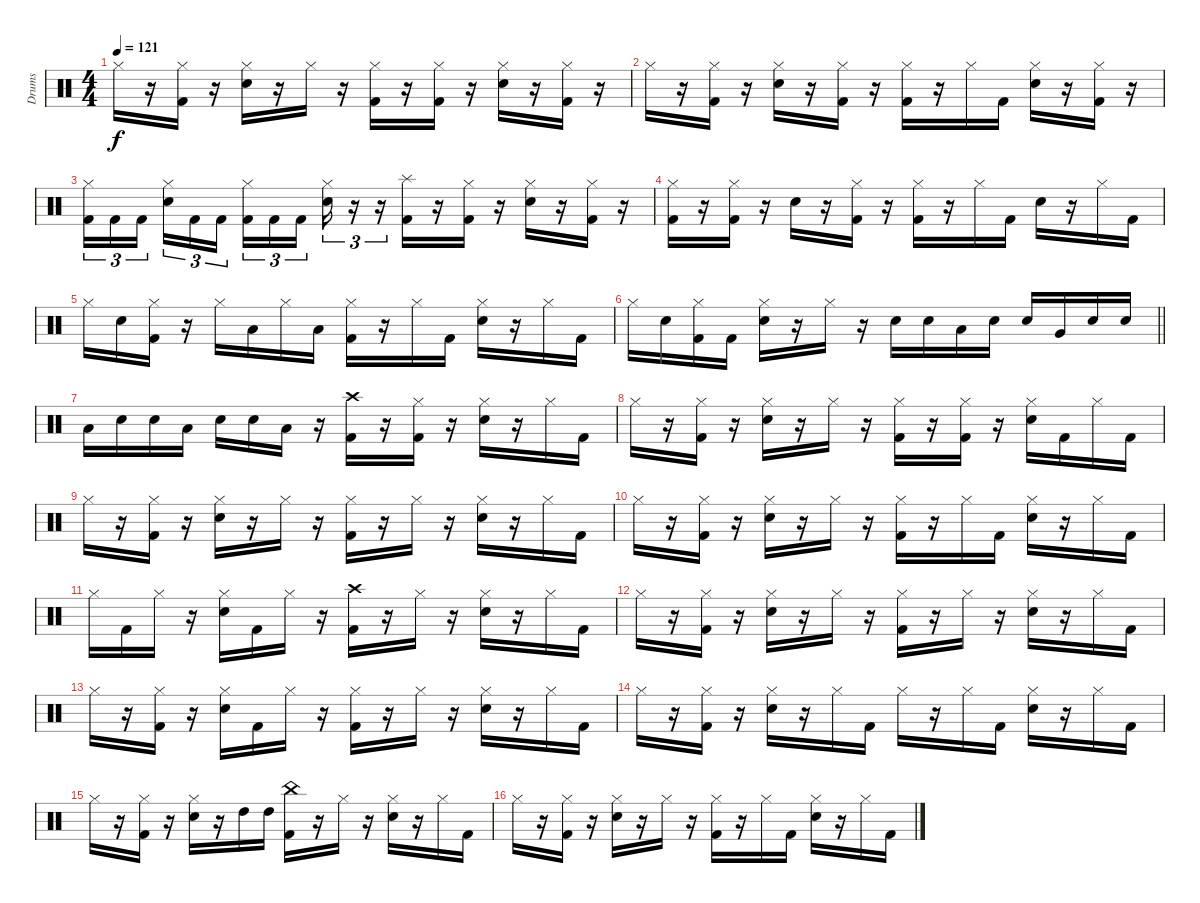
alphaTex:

\track ("Drums" "Drums") {instrument percussion}
\staff {score}
\articulation defaults
\ts (4 4)
\tempo 121
\clef neutral
\ks c "Hi-Hat (closed)".16{dy f}
r.16 ("Hi-Hat (closed)" "Kick (hit) 2").16 r.16 ("Hi-Hat (closed)" "Snare (hit) 2").16 r.16 "Hi-Hat (closed)".16 r.16 ("Hi-Hat (closed)" "Kick (hit) 2").16 r.16 ("Hi-Hat (closed)" "Kick (hit) 2").16 r.16 ("Hi-Hat (closed)" "Snare (hit) 2").16 r.16 ("Hi-Hat (closed)" "Kick (hit) 2").16 r.16 |
"Hi-Hat (closed)".16 r.16 ("Hi-Hat (closed)" "Kick (hit) 2").16 r.16 ("Hi-Hat (closed)" "Snare (hit) 2").16 r.16 ("Hi-Hat (closed)" "Kick (hit) 2").16 r.16 ("Hi-Hat (closed)" "Kick (hit) 2").16 r.16 "Hi-Hat (closed)".16 "Kick (hit) 2".16 ("Hi-Hat (closed)" "Snare (hit) 2").16 r.16 ("Hi-Hat (closed)" "Kick (hit) 2").16 r.16 |
("Hi-Hat (closed)" "Kick (hit) 2").16{tu (3 2)} "Kick (hit) 2".16{tu (3 2)} "Kick (hit) 2".16{tu (3 2) beam splitsecondary} ("Hi-Hat (closed)" "Snare (hit) 2").16{tu (3 2)} "Kick (hit) 2".16{tu (3 2)} "Kick (hit) 2".16{tu (3 2)} ("Hi-Hat (closed)" "Kick (hit) 2").16{tu (3 2)} "Kick (hit) 2".16{tu (3 2)} "Kick (hit) 2".16{tu (3 2) beam splitsecondary} ("Hi-Hat (closed)" "Snare (hit) 2").16{tu (3 2)} r.16{tu (3 2)} r.16{tu (3 2)} ("Splash (hit)" "Kick (hit) 2").16 r.16 ("Hi-Hat (closed)" "Kick (hit) 2").16 r.16 ("Hi-Hat (closed)" "Snare (hit) 2").16 r.16 ("Hi-Hat (closed)" "Kick (hit) 2").16 r.16 |
("Hi-Hat (closed)" "Kick (hit) 2").16 r.16 ("Hi-Hat (closed)" "Kick (hit) 2").16 r.16 "Snare (hit) 2".16 r.16 ("Hi-Hat (closed)" "Kick (hit) 2").16 r.16 ("Hi-Hat (closed)" "Kick (hit) 2").16 r.16 "Hi-Hat (closed)".16 "Kick (hit) 2".16 "Snare (hit) 2".16 r.16 "Hi-Hat (closed)".16 "Kick (hit) 2".16 |
"Hi-Hat (closed)".16 "Snare (hit) 2".16 ("Hi-Hat (closed)" "Kick (hit) 2").16 r.16 "Hi-Hat (closed)".16 "Low Tom (hit)".16 "Hi-Hat (closed)".16 "Low Tom (hit)".16 ("Hi-Hat (closed)" "Kick (hit) 2").16 r.16 "Hi-Hat (closed)".16 "Kick (hit) 2".16 ("Hi-Hat (closed)" "Snare (hit) 2").16 r.16 "Hi-Hat (closed)".16 "Kick (hit) 2".16 |
\barLineRight lightlight "Hi-Hat (closed)".16 "Snare (hit) 2".16
("Hi-Hat (closed)" "Kick (hit) 2").16 "Kick (hit) 2".16 ("Hi-Hat (closed)" "Snare (hit) 2").16 r.16 "Hi-Hat (closed)".16 r.16 "Snare (hit) 2".16 "Snare (hit) 2".16 "Low Tom (hit)".16 "Snare (hit) 2".16 "Snare (hit) 2".16 "Very Low Tom (hit)".16 "Snare (hit) 2".16 "Snare (hit) 2".16 |
\section ("" "")
"Low Floor Tom (hit)".16 "Snare (hit) 2".16 "Snare (hit) 2".16 "Low Floor Tom (hit)".16 "Snare (hit) 2".16 "Snare (hit) 2".16 "Low Tom (hit)".16 r.16 ("Crash high (hit)" "Kick (hit) 2").16 r.16 ("Hi-Hat (closed)" "Kick (hit) 2").16 r.16 ("Hi-Hat (closed)" "Snare (hit) 2").16 r.16 "Hi-Hat (closed)".16 "Kick (hit) 2".16 |
"Hi-Hat (closed)".16 r.16 ("Hi-Hat (closed)" "Kick (hit) 2").16 r.16 ("Hi-Hat (closed)" "Snare (hit) 2").16 r.16 "Hi-Hat (closed)".16 r.16 ("Hi-Hat (closed)" "Kick (hit) 2").16 r.16 ("Hi-Hat (closed)" "Kick (hit) 2").16 r.16 ("Hi-Hat (closed)" "Snare (hit) 2").16 "Kick (hit) 2".16 "Hi-Hat (closed)".16 "Kick (hit) 2".16 |
"Hi-Hat (closed)".16 r.16 ("Hi-Hat (closed)" "Kick (hit) 2").16 r.16 ("Hi-Hat (closed)" "Snare (hit) 2").16 r.16 "Hi-Hat (closed)".16 r.16 ("Hi-Hat (closed)" "Kick (hit) 2").16 r.16 "Hi-Hat (closed)".16 r.16 ("Hi-Hat (closed)" "Snare (hit) 2").16 r.16 "Hi-Hat (closed)".16 "Kick (hit) 2".16 |
"Hi-Hat (closed)".16 r.16 ("Hi-Hat (closed)" "Kick (hit) 2").16 r.16 ("Hi-Hat (closed)" "Snare (hit) 2").16 r.16 "Hi-Hat (closed)".16 r.16 ("Hi-Hat (closed)" "Kick (hit) 2").16 r.16 "Hi-Hat (closed)".16 "Kick (hit) 2".16 ("Hi-Hat (closed)" "Snare (hit) 2").16 r.16 "Hi-Hat (closed)".16 "Kick (hit) 2".16 |
"Hi-Hat (closed)".16 "Kick (hit) 2".16 "Hi-Hat (closed)".16 r.16 ("Hi-Hat (closed)" "Snare (hit) 2").16 "Kick (hit) 2".16 "Hi-Hat (closed)".16 r.16 ("Crash high (hit)" "Kick (hit) 2").16 r.16 "Hi-Hat (closed)".16 r.16 ("Hi-Hat (closed)" "Snare (hit) 2").16 r.16 "Hi-Hat (closed)".16 "Kick (hit) 2".16 |
"Hi-Hat (closed)".16 r.16 ("Hi-Hat (closed)" "Kick (hit) 2").16 r.16 ("Hi-Hat (closed)" "Snare (hit) 2").16 r.16 "Hi-Hat (closed)".16 r.16 ("Hi-Hat (closed)" "Kick (hit) 2").16 r.16 "Hi-Hat (closed)".16 r.16 ("Hi-Hat (closed)" "Snare (hit) 2").16 r.16 "Hi-Hat (closed)".16 "Kick (hit) 2".16 |
"Hi-Hat (closed)".16 r.16 ("Hi-Hat (closed)" "Kick (hit) 2").16 r.16 ("Hi-Hat (closed)" "Snare (hit) 2").16 "Kick (hit) 2".16 "Hi-Hat (closed)".16 r.16 ("Hi-Hat (closed)" "Kick (hit) 2").16 r.16 "Hi-Hat (closed)".16 r.16 ("Hi-Hat (closed)" "Snare (hit) 2").16 r.16 "Hi-Hat (closed)".16 "Kick (hit) 2".16 |
"Hi-Hat (closed)".16 r.16 ("Hi-Hat (closed)" "Kick (hit) 2").16 r.16 ("Hi-Hat (closed)" "Snare (hit) 2").16 r.16 "Hi-Hat (closed)".16 "Kick (hit) 2".16 "Hi-Hat (closed)".16 r.16 "Hi-Hat (closed)".16 "Kick (hit) 2".16 ("Hi-Hat (closed)" "Snare (hit) 2").16 r.16 "Hi-Hat (closed)".16 "Kick (hit) 2".16 |
"Hi-Hat (closed)".16 r.16 ("Hi-Hat (closed)" "Kick (hit) 2").16 r.16 ("Hi-Hat (closed)" "Snare (hit) 2").16 r.16 "High Tom (hit)".16 "High Tom (hit)".16 ("China (hit)" "Kick (hit) 2").16 r.16 "Hi-Hat (closed)".16 r.16 ("Hi-Hat (closed)" "Snare (hit) 2").16 r.16 "Hi-Hat (closed)".16 "Kick (hit) 2".16 |
"Hi-Hat (closed)".16 r.16 ("Hi-Hat (closed)" "Kick (hit) 2").16 r.16 ("Hi-Hat (closed)" "Snare (hit) 2").16 r.16 "Hi-Hat (closed)".16 r.16 ("Hi-Hat (closed)" "Kick (hit) 2").16 r.16 "Hi-Hat (closed)".16 "Kick (hit) 2".16 ("Hi-Hat (closed)" "Snare (hit) 2").16 r.16 "Hi-Hat (closed)".16 "Kick (hit) 2".16
